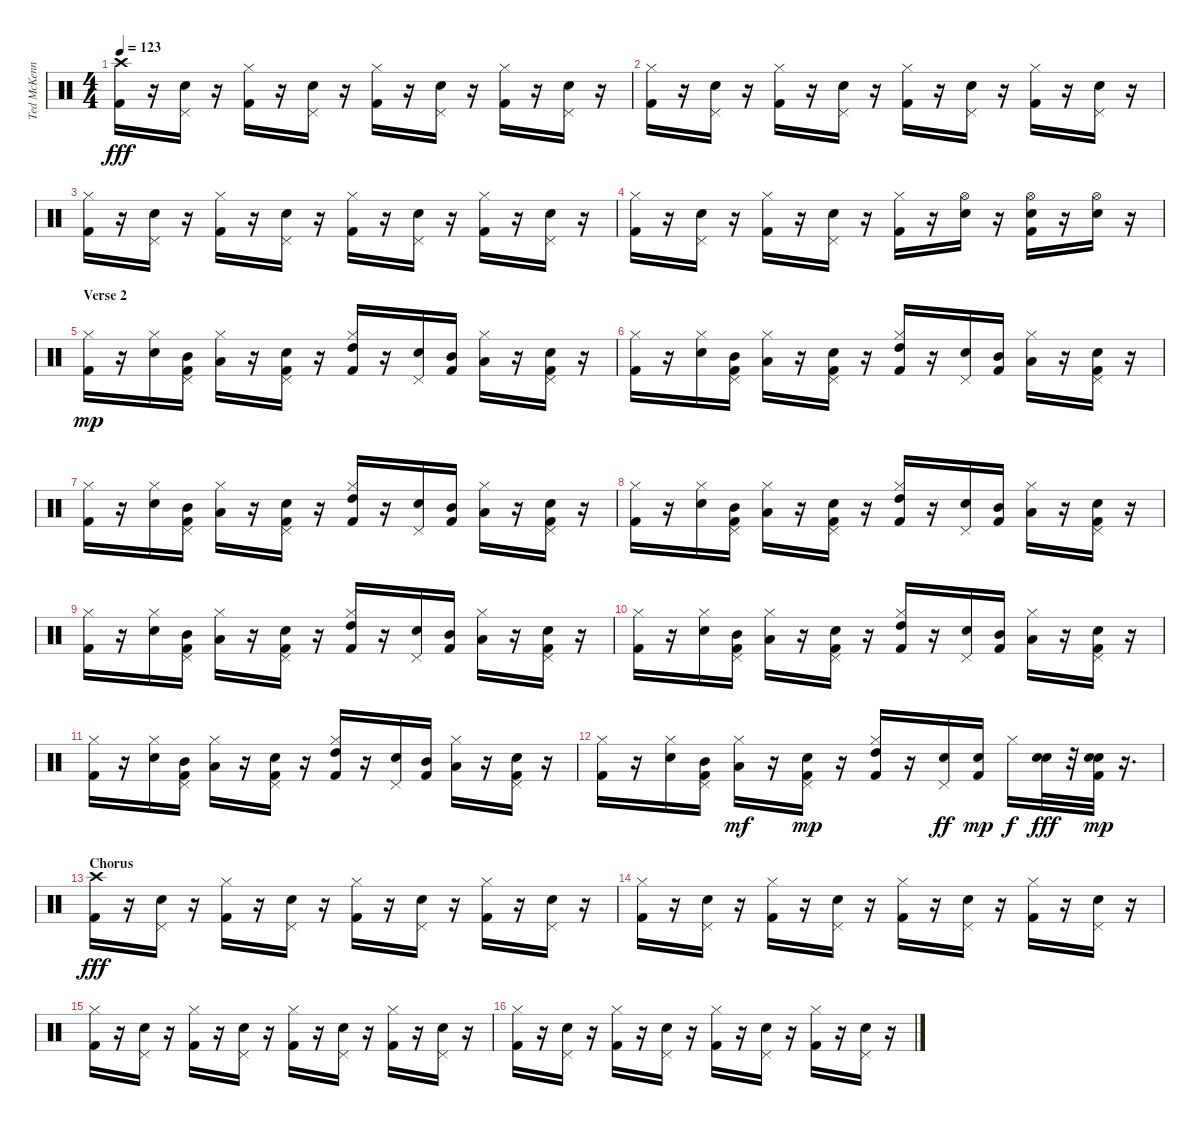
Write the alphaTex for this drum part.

\track ("Ted McKenna" "Ted McKenn") {instrument percussion}
\staff {score}
\articulation defaults
\ts (4 4)
\tempo 123
\clef neutral
\ks c
("Crash high (hit)" "Kick (hit) 2").16{dy fff} r.16 ("Snare (hit) 2" "Pedal Hi-Hat (hit)").16 r.16 ("Hi-Hat (closed)" "Kick (hit) 2").16 r.16 ("Snare (hit) 2" "Pedal Hi-Hat (hit)").16 r.16 ("Hi-Hat (closed)" "Kick (hit) 2").16 r.16 ("Snare (hit) 2" "Pedal Hi-Hat (hit)").16 r.16 ("Hi-Hat (closed)" "Kick (hit) 2").16 r.16 ("Snare (hit) 2" "Pedal Hi-Hat (hit)").16 r.16 |
("Hi-Hat (closed)" "Kick (hit) 2").16 r.16 ("Snare (hit) 2" "Pedal Hi-Hat (hit)").16 r.16 ("Hi-Hat (closed)" "Kick (hit) 2").16 r.16 ("Snare (hit) 2" "Pedal Hi-Hat (hit)").16 r.16 ("Hi-Hat (closed)" "Kick (hit) 2").16 r.16 ("Snare (hit) 2" "Pedal Hi-Hat (hit)").16 r.16 ("Hi-Hat (closed)" "Kick (hit) 2").16 r.16 ("Snare (hit) 2" "Pedal Hi-Hat (hit)").16 r.16 |
("Hi-Hat (closed)" "Kick (hit) 2").16 r.16 ("Snare (hit) 2" "Pedal Hi-Hat (hit)").16 r.16 ("Hi-Hat (closed)" "Kick (hit) 2").16 r.16 ("Snare (hit) 2" "Pedal Hi-Hat (hit)").16 r.16 ("Hi-Hat (closed)" "Kick (hit) 2").16 r.16 ("Snare (hit) 2" "Pedal Hi-Hat (hit)").16 r.16 ("Hi-Hat (closed)" "Kick (hit) 2").16 r.16 ("Snare (hit) 2" "Pedal Hi-Hat (hit)").16 r.16 |
("Hi-Hat (closed)" "Kick (hit) 2").16 r.16 ("Snare (hit) 2" "Pedal Hi-Hat (hit)").16 r.16 ("Hi-Hat (closed)" "Kick (hit) 2").16 r.16 ("Snare (hit) 2" "Pedal Hi-Hat (hit)").16 r.16 ("Hi-Hat (closed)" "Kick (hit) 2").16 r.16 ("Hi-Hat (open)" "Snare (hit) 2").16 r.16 ("Hi-Hat (open)" "Electric Snare (hit)" "Kick (hit) 2").16 r.16 ("Hi-Hat (open)" "Snare (hit) 2").16 r.16 |
\section ("" "Verse 2")
("Hi-Hat (closed)" "Kick (hit) 2").16{dy mp} r.16 ("Snare (hit) 2" "Hi-Hat (closed)").16 ("Mid Tom (hit)" "Pedal Hi-Hat (hit)" "Kick (hit) 2").16 ("Low Tom (hit)" "Hi-Hat (closed)").16 r.16 ("Snare (hit) 2" "Pedal Hi-Hat (hit)" "Kick (hit) 2").16 r.16 ("High Tom (hit)" "Hi-Hat (closed)" "Kick (hit) 2").16 r.16 ("Snare (hit) 2" "Pedal Hi-Hat (hit)").16 ("Mid Tom (hit)" "Kick (hit) 2").16 ("Low Tom (hit)" "Hi-Hat (closed)").16 r.16 ("Snare (hit) 2" "Pedal Hi-Hat (hit)" "Kick (hit) 2").16 r.16 |
("Hi-Hat (closed)" "Kick (hit) 2").16 r.16 ("Snare (hit) 2" "Hi-Hat (closed)").16 ("Mid Tom (hit)" "Pedal Hi-Hat (hit)" "Kick (hit) 2").16 ("Low Tom (hit)" "Hi-Hat (closed)").16 r.16 ("Snare (hit) 2" "Pedal Hi-Hat (hit)" "Kick (hit) 2").16 r.16 ("High Tom (hit)" "Hi-Hat (closed)" "Kick (hit) 2").16 r.16 ("Snare (hit) 2" "Pedal Hi-Hat (hit)").16 ("Mid Tom (hit)" "Kick (hit) 2").16 ("Low Tom (hit)" "Hi-Hat (closed)").16 r.16 ("Snare (hit) 2" "Pedal Hi-Hat (hit)" "Kick (hit) 2").16 r.16 |
("Hi-Hat (closed)" "Kick (hit) 2").16 r.16 ("Snare (hit) 2" "Hi-Hat (closed)").16 ("Mid Tom (hit)" "Pedal Hi-Hat (hit)" "Kick (hit) 2").16 ("Low Tom (hit)" "Hi-Hat (closed)").16 r.16 ("Snare (hit) 2" "Pedal Hi-Hat (hit)" "Kick (hit) 2").16 r.16 ("High Tom (hit)" "Hi-Hat (closed)" "Kick (hit) 2").16 r.16 ("Snare (hit) 2" "Pedal Hi-Hat (hit)").16 ("Mid Tom (hit)" "Kick (hit) 2").16 ("Low Tom (hit)" "Hi-Hat (closed)").16 r.16 ("Snare (hit) 2" "Pedal Hi-Hat (hit)" "Kick (hit) 2").16 r.16 |
("Hi-Hat (closed)" "Kick (hit) 2").16 r.16 ("Snare (hit) 2" "Hi-Hat (closed)").16 ("Mid Tom (hit)" "Pedal Hi-Hat (hit)" "Kick (hit) 2").16 ("Low Tom (hit)" "Hi-Hat (closed)").16 r.16 ("Snare (hit) 2" "Pedal Hi-Hat (hit)" "Kick (hit) 2").16 r.16 ("High Tom (hit)" "Hi-Hat (closed)" "Kick (hit) 2").16 r.16 ("Snare (hit) 2" "Pedal Hi-Hat (hit)").16 ("Mid Tom (hit)" "Kick (hit) 2").16 ("Low Tom (hit)" "Hi-Hat (closed)").16 r.16 ("Snare (hit) 2" "Pedal Hi-Hat (hit)" "Kick (hit) 2").16 r.16 |
("Hi-Hat (closed)" "Kick (hit) 2").16 r.16 ("Snare (hit) 2" "Hi-Hat (closed)").16 ("Mid Tom (hit)" "Pedal Hi-Hat (hit)" "Kick (hit) 2").16 ("Low Tom (hit)" "Hi-Hat (closed)").16 r.16 ("Snare (hit) 2" "Pedal Hi-Hat (hit)" "Kick (hit) 2").16 r.16 ("High Tom (hit)" "Hi-Hat (closed)" "Kick (hit) 2").16 r.16 ("Snare (hit) 2" "Pedal Hi-Hat (hit)").16 ("Mid Tom (hit)" "Kick (hit) 2").16 ("Low Tom (hit)" "Hi-Hat (closed)").16 r.16 ("Snare (hit) 2" "Pedal Hi-Hat (hit)" "Kick (hit) 2").16 r.16 |
("Hi-Hat (closed)" "Kick (hit) 2").16 r.16 ("Snare (hit) 2" "Hi-Hat (closed)").16 ("Mid Tom (hit)" "Pedal Hi-Hat (hit)" "Kick (hit) 2").16 ("Low Tom (hit)" "Hi-Hat (closed)").16 r.16 ("Snare (hit) 2" "Pedal Hi-Hat (hit)" "Kick (hit) 2").16 r.16 ("High Tom (hit)" "Hi-Hat (closed)" "Kick (hit) 2").16 r.16 ("Snare (hit) 2" "Pedal Hi-Hat (hit)").16 ("Mid Tom (hit)" "Kick (hit) 2").16 ("Low Tom (hit)" "Hi-Hat (closed)").16 r.16 ("Snare (hit) 2" "Pedal Hi-Hat (hit)" "Kick (hit) 2").16 r.16 |
("Hi-Hat (closed)" "Kick (hit) 2").16 r.16 ("Snare (hit) 2" "Hi-Hat (closed)").16 ("Mid Tom (hit)" "Pedal Hi-Hat (hit)" "Kick (hit) 2").16 ("Low Tom (hit)" "Hi-Hat (closed)").16 r.16 ("Snare (hit) 2" "Pedal Hi-Hat (hit)" "Kick (hit) 2").16 r.16 ("High Tom (hit)" "Hi-Hat (closed)" "Kick (hit) 2").16 r.16 ("Snare (hit) 2" "Pedal Hi-Hat (hit)").16 ("Mid Tom (hit)" "Kick (hit) 2").16 ("Low Tom (hit)" "Hi-Hat (closed)").16 r.16 ("Snare (hit) 2" "Pedal Hi-Hat (hit)" "Kick (hit) 2").16 r.16 |
("Hi-Hat (closed)" "Kick (hit) 2").16 r.16 ("Snare (hit) 2" "Hi-Hat (closed)").16 ("Mid Tom (hit)" "Pedal Hi-Hat (hit)" "Kick (hit) 2").16 ("Low Tom (hit)" "Hi-Hat (closed)").16{dy mf} r.16 ("Snare (hit) 2" "Pedal Hi-Hat (hit)" "Kick (hit) 2").16{dy mp} r.16 ("High Tom (hit)" "Hi-Hat (closed)" "Kick (hit) 2").16 r.16 ("Snare (hit) 2" "Pedal Hi-Hat (hit)").16{dy ff} ("Snare (hit) 2" "Kick (hit) 2").16{dy mp} "Hi-Hat (closed)".16{dy f} ("Electric Snare (hit)" "Electric Snare (hit)").32{dy fff} r.32 ("Electric Snare (hit)" "Electric Snare (hit)" "Kick (hit) 2").32{dy mp} r.16{d} |
\section ("" "Chorus")
("Crash high (hit)" "Kick (hit) 2").16{dy fff} r.16 ("Snare (hit) 2" "Pedal Hi-Hat (hit)").16 r.16 ("Hi-Hat (closed)" "Kick (hit) 2").16 r.16 ("Snare (hit) 2" "Pedal Hi-Hat (hit)").16 r.16 ("Hi-Hat (closed)" "Kick (hit) 2").16 r.16 ("Snare (hit) 2" "Pedal Hi-Hat (hit)").16 r.16 ("Hi-Hat (closed)" "Kick (hit) 2").16 r.16 ("Snare (hit) 2" "Pedal Hi-Hat (hit)").16 r.16 |
("Hi-Hat (closed)" "Kick (hit) 2").16 r.16 ("Snare (hit) 2" "Pedal Hi-Hat (hit)").16 r.16 ("Hi-Hat (closed)" "Kick (hit) 2").16 r.16 ("Snare (hit) 2" "Pedal Hi-Hat (hit)").16 r.16 ("Hi-Hat (closed)" "Kick (hit) 2").16 r.16 ("Snare (hit) 2" "Pedal Hi-Hat (hit)").16 r.16 ("Hi-Hat (closed)" "Kick (hit) 2").16 r.16 ("Snare (hit) 2" "Pedal Hi-Hat (hit)").16 r.16 |
("Hi-Hat (closed)" "Kick (hit) 2").16 r.16 ("Snare (hit) 2" "Pedal Hi-Hat (hit)").16 r.16 ("Hi-Hat (closed)" "Kick (hit) 2").16 r.16 ("Snare (hit) 2" "Pedal Hi-Hat (hit)").16 r.16 ("Hi-Hat (closed)" "Kick (hit) 2").16 r.16 ("Snare (hit) 2" "Pedal Hi-Hat (hit)").16 r.16 ("Hi-Hat (closed)" "Kick (hit) 2").16 r.16 ("Snare (hit) 2" "Pedal Hi-Hat (hit)").16 r.16 |
("Hi-Hat (closed)" "Kick (hit) 2").16 r.16 ("Snare (hit) 2" "Pedal Hi-Hat (hit)").16 r.16 ("Hi-Hat (closed)" "Kick (hit) 2").16 r.16 ("Snare (hit) 2" "Pedal Hi-Hat (hit)").16 r.16 ("Hi-Hat (closed)" "Kick (hit) 2").16 r.16 ("Snare (hit) 2" "Pedal Hi-Hat (hit)").16 r.16 ("Hi-Hat (closed)" "Kick (hit) 2").16 r.16 ("Snare (hit) 2" "Pedal Hi-Hat (hit)").16 r.16
